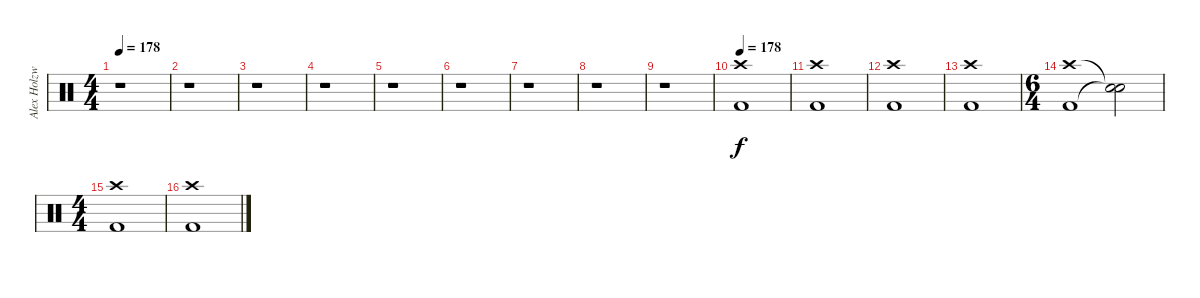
\track ("Alex Holzwarth" "Alex Holzw") {instrument percussion}
\staff {score}
\articulation defaults
\ts (4 4)
\tempo 178
\tempo 80
\tempo 178
\clef neutral
\ks c
r.1{dy f} |
r.1 |
r.1 |
r.1 |
r.1 |
r.1 |
r.1 |
r.1 |
r.1 |
\tempo 178
("Crash high (hit)" "Kick (hit) 2").1 |
("Crash high (hit)" "Kick (hit) 2").1 |
("Crash high (hit)" "Kick (hit) 2").1 |
("Crash high (hit)" "Kick (hit) 2").1 |
\ts (6 4)
("Crash high (hit)" "Kick (hit) 2").1 ("Snare (hit)"{t} "Snare (hit)"{t}).2 |
\ts (4 4)
("Crash high (hit)" "Kick (hit) 2").1 |
("Crash high (hit)" "Kick (hit) 2").1
